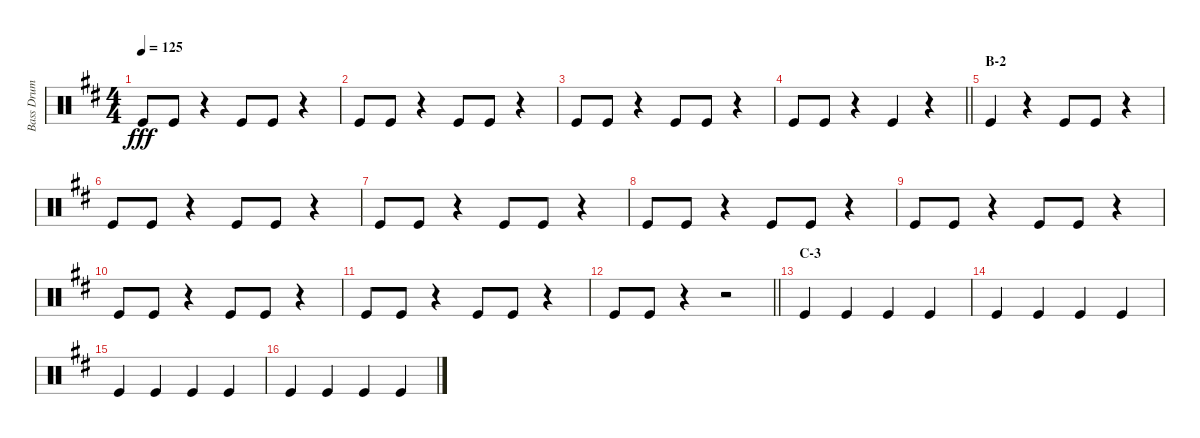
\track ("Bass Drum" "Bass Drum") {instrument percussion}
\staff {score}
\articulation defaults
\ts (4 4)
\tempo 125
\clef neutral
\ks d "Kick (hit)".8{dy fff} "Kick (hit)".8
r.4 "Kick (hit)".8 "Kick (hit)".8 r.4 |
"Kick (hit)".8 "Kick (hit)".8 r.4 "Kick (hit)".8 "Kick (hit)".8 r.4 |
"Kick (hit)".8 "Kick (hit)".8 r.4 "Kick (hit)".8 "Kick (hit)".8 r.4 |
\barLineRight lightlight "Kick (hit)".8 "Kick (hit)".8
r.4 "Kick (hit)".4 r.4 |
\section ("" "B-2")
"Kick (hit)".4 r.4 "Kick (hit)".8 "Kick (hit)".8 r.4 |
"Kick (hit)".8 "Kick (hit)".8 r.4 "Kick (hit)".8 "Kick (hit)".8 r.4 |
"Kick (hit)".8 "Kick (hit)".8 r.4 "Kick (hit)".8 "Kick (hit)".8 r.4 |
"Kick (hit)".8 "Kick (hit)".8 r.4 "Kick (hit)".8 "Kick (hit)".8 r.4 |
"Kick (hit)".8 "Kick (hit)".8 r.4 "Kick (hit)".8 "Kick (hit)".8 r.4 |
"Kick (hit)".8 "Kick (hit)".8 r.4 "Kick (hit)".8 "Kick (hit)".8 r.4 |
"Kick (hit)".8 "Kick (hit)".8 r.4 "Kick (hit)".8 "Kick (hit)".8 r.4 |
\barLineRight lightlight "Kick (hit)".8 "Kick (hit)".8
r.4 r.2 |
\section ("" "C-3")
"Kick (hit)".4 "Kick (hit)".4 "Kick (hit)".4 "Kick (hit)".4 |
"Kick (hit)".4 "Kick (hit)".4 "Kick (hit)".4 "Kick (hit)".4 |
"Kick (hit)".4 "Kick (hit)".4 "Kick (hit)".4 "Kick (hit)".4 |
"Kick (hit)".4 "Kick (hit)".4 "Kick (hit)".4 "Kick (hit)".4
